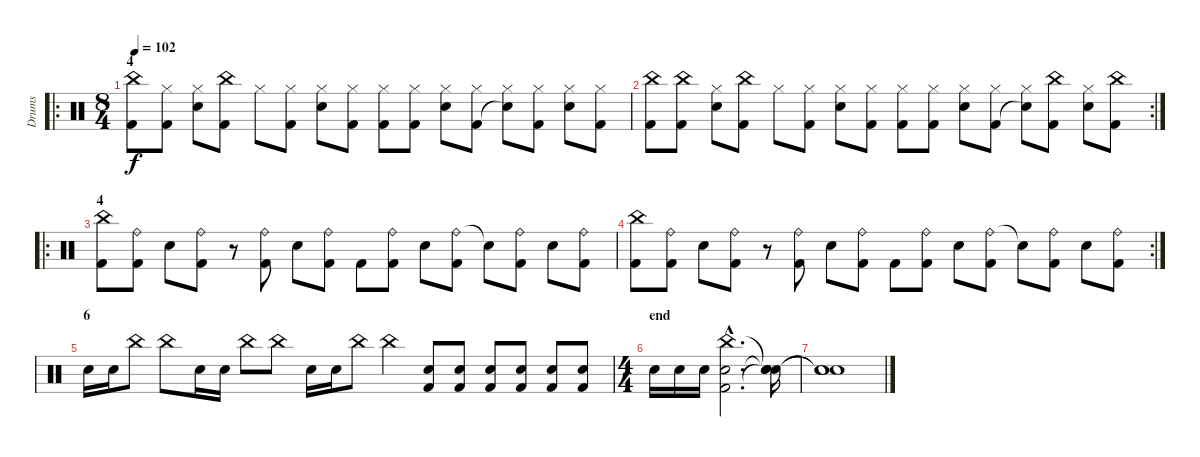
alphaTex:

\track ("Drums" "Drums") {instrument percussion}
\staff {score}
\articulation defaults
\ro
\ts (8 4)
\section ("" "4")
\tempo 102
\clef neutral
\ks c
("China (hit)" "Kick (hit) 2").8{dy f} ("Hi-Hat (closed)" "Kick (hit) 2").8 ("Hi-Hat (closed)" "Snare (hit) 2").8 ("China (hit)" "Kick (hit) 2").8 "Hi-Hat (closed)".8 ("Hi-Hat (closed)" "Kick (hit) 2").8 ("Hi-Hat (closed)" "Snare (hit) 2").8 ("Hi-Hat (closed)" "Kick (hit) 2").8 ("Hi-Hat (closed)" "Kick (hit) 2").8 ("Hi-Hat (closed)" "Kick (hit) 2").8 ("Hi-Hat (closed)" "Snare (hit) 2").8 ("Hi-Hat (closed)" "Kick (hit) 2").8 ("Hi-Hat (closed)" "Snare (hit)"{t}).8 ("Hi-Hat (closed)" "Kick (hit) 2").8 ("Hi-Hat (closed)" "Snare (hit) 2").8 ("Hi-Hat (closed)" "Kick (hit) 2").8 |
\rc 2
("China (hit)" "Kick (hit) 2").8 ("China (hit)" "Kick (hit) 2").8 ("Hi-Hat (closed)" "Snare (hit) 2").8 ("China (hit)" "Kick (hit) 2").8 "Hi-Hat (closed)".8 ("Hi-Hat (closed)" "Kick (hit) 2").8 ("Hi-Hat (closed)" "Snare (hit) 2").8 ("Hi-Hat (closed)" "Kick (hit) 2").8 ("Hi-Hat (closed)" "Kick (hit) 2").8 ("Hi-Hat (closed)" "Kick (hit) 2").8 ("Hi-Hat (closed)" "Snare (hit) 2").8 ("Hi-Hat (closed)" "Kick (hit) 2").8 ("Hi-Hat (closed)" "Snare (hit)"{t}).8 ("China (hit)" "Kick (hit) 2").8 ("Hi-Hat (closed)" "Snare (hit) 2").8 ("China (hit)" "Kick (hit) 2").8 |
\ro
\section ("" "4")
("China (hit)" "Kick (hit) 2").8 ("Ride (bell)" "Kick (hit) 2").8 "Snare (hit) 2".8 ("Ride (bell)" "Kick (hit) 2").8 r.8 ("Ride (bell)" "Kick (hit) 2").8 "Snare (hit) 2".8 ("Ride (bell)" "Kick (hit) 2").8 "Kick (hit) 2".8 ("Ride (bell)" "Kick (hit) 2").8 "Snare (hit) 2".8 ("Ride (bell)" "Kick (hit) 2").8 "Snare (hit)"{t}.8 ("Ride (bell)" "Kick (hit) 2").8 "Snare (hit) 2".8 ("Ride (bell)" "Kick (hit) 2").8 |
\rc 2
("China (hit)" "Kick (hit) 2").8 ("Ride (bell)" "Kick (hit) 2").8 "Snare (hit) 2".8 ("Ride (bell)" "Kick (hit) 2").8 r.8 ("Ride (bell)" "Kick (hit) 2").8 "Snare (hit) 2".8 ("Ride (bell)" "Kick (hit) 2").8 "Kick (hit) 2".8 ("Ride (bell)" "Kick (hit) 2").8 "Snare (hit) 2".8 ("Ride (bell)" "Kick (hit) 2").8 "Snare (hit)"{t}.8 ("Ride (bell)" "Kick (hit) 2").8 "Snare (hit) 2".8 ("Ride (bell)" "Kick (hit) 2").8 |
\section ("" "6")
"Electric Snare (hit)".16 "Electric Snare (hit)".16 "China (hit)".8 "China (hit)".8 "Electric Snare (hit)".16 "Electric Snare (hit)".16 "China (hit)".8 "China (hit)".8 "Electric Snare (hit)".16 "Electric Snare (hit)".16 "China (hit)".8 "China (hit)".4 ("Snare (hit) 2" "Kick (hit) 2").8 ("Snare (hit) 2" "Kick (hit) 2").8 ("Snare (hit) 2" "Kick (hit) 2").8 ("Snare (hit) 2" "Kick (hit) 2").8 ("Snare (hit) 2" "Kick (hit) 2").8 ("Snare (hit) 2" "Kick (hit) 2").8 |
\ts (4 4)
\section ("" "end")
"Snare (hit) 2".16 "Snare (hit) 2".16 "Electric Snare (hit)".16 ("China (hit)"{hac} "Electric Snare (hit)"{hac} "Kick (hit) 2"{hac}).2{d} ("Snare (hit)"{t} "Snare (hit)"{t} "Snare (hit)"{t}).16 |
("Snare (hit)"{t} "Snare (hit)"{t} "Snare (hit)"{t}).1
